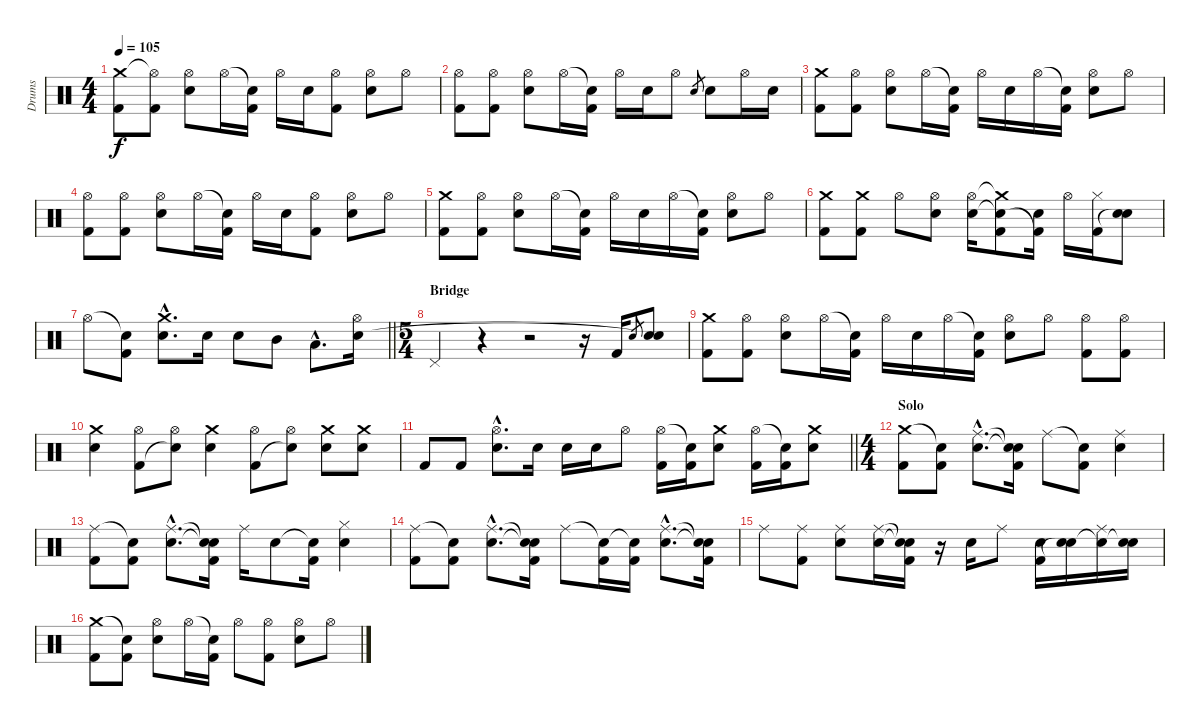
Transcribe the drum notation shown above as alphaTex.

\track ("Drums" "Drums") {instrument percussion}
\staff {score}
\articulation defaults
\ts (4 4)
\tempo 105
\clef neutral
\ks aminor
("Crash medium (hit)" "Kick (hit) 2").8{dy f} ("Hi-Hat (open)"{t} "Kick (hit) 2").8 ("Hi-Hat (open)" "Electric Snare (hit)").8 "Hi-Hat (open)".16 ("Snare (hit)"{t} "Kick (hit) 2").16 "Hi-Hat (open)".16 "Electric Snare (hit)".16 ("Hi-Hat (open)" "Kick (hit) 2").8 ("Hi-Hat (open)" "Electric Snare (hit)").8 "Hi-Hat (open)".8 |
("Hi-Hat (open)" "Kick (hit) 2").8 ("Hi-Hat (open)" "Kick (hit) 2").8 ("Hi-Hat (open)" "Electric Snare (hit)").8 "Hi-Hat (open)".16 ("Snare (hit)"{t} "Kick (hit) 2").16 "Hi-Hat (open)".16 "Electric Snare (hit)".16 "Hi-Hat (open)".8 "Electric Snare (hit)".8{gr} "Electric Snare (hit)".8 "Hi-Hat (open)".16 "Electric Snare (hit)".16 |
("Crash medium (hit)" "Kick (hit) 2").8 ("Hi-Hat (open)" "Kick (hit) 2").8 ("Hi-Hat (open)" "Electric Snare (hit)").8 "Hi-Hat (open)".16 ("Snare (hit)"{t} "Kick (hit) 2").16 "Hi-Hat (open)".16 "Electric Snare (hit)".16 "Hi-Hat (open)".16 ("Snare (hit)"{t} "Kick (hit) 2").16 ("Hi-Hat (open)" "Electric Snare (hit)").8 "Hi-Hat (open)".8 |
("Hi-Hat (open)" "Kick (hit) 2").8 ("Hi-Hat (open)" "Kick (hit) 2").8 ("Hi-Hat (open)" "Electric Snare (hit)").8 "Hi-Hat (open)".16 ("Snare (hit)"{t} "Kick (hit) 2").16 "Hi-Hat (open)".16 "Electric Snare (hit)".16 ("Hi-Hat (open)" "Kick (hit) 2").8 ("Hi-Hat (open)" "Electric Snare (hit)").8 "Hi-Hat (open)".8 |
("Crash medium (hit)" "Kick (hit) 2").8 ("Hi-Hat (open)" "Kick (hit) 2").8 ("Hi-Hat (open)" "Electric Snare (hit)").8 "Hi-Hat (open)".16 ("Snare (hit)"{t} "Kick (hit) 2").16 "Hi-Hat (open)".16 "Electric Snare (hit)".16 "Hi-Hat (open)".16 ("Snare (hit)"{t} "Kick (hit) 2").16 ("Hi-Hat (open)" "Electric Snare (hit)").8 "Hi-Hat (open)".8 |
("Crash medium (hit)" "Kick (hit) 2").8 ("Crash medium (hit)" "Kick (hit) 2").8 "Hi-Hat (open)".8 ("Hi-Hat (open)" "Electric Snare (hit)").8 ("Hi-Hat (open)" "Electric Snare (hit)").16 ("Crash medium (hit)"{t} "Electric Snare (hit)"{t} "Kick (hit) 2").8 ("Electric Snare (hit)" "Kick (hit) 2"{t}).16 "Hi-Hat (open)".16 ("Hi-Hat (closed)" "Kick (hit) 2").16 ("Electric Snare (hit)" "Snare (hit)"{t}).8 |
\barLineRight lightlight "Hi-Hat (open)".8
("Snare (hit)"{t} "Kick (hit) 2").8 ("Crash medium (hit)"{hac} "Electric Snare (hit)"{hac}).8{d} "Electric Snare (hit)".16 "Electric Snare (hit)".8 "Mid Tom (hit)".8 "Low Floor Tom (hit)"{hac}.8{d} ("Hi-Hat (open)" "Electric Snare (hit)").16 |
\ts (5 4)
\section ("" "Bridge")
"Pedal Hi-Hat (hit)".4 r.4 r.2 r.16 "Kick (hit) 2".16 "Electric Snare (hit)".8{gr} ("Electric Snare (hit)" "Snare (hit)"{t}).8 |
("Crash medium (hit)" "Kick (hit) 2").8 ("Hi-Hat (open)" "Kick (hit) 2").8 ("Hi-Hat (open)" "Electric Snare (hit)").8 "Hi-Hat (open)".16 ("Snare (hit)"{t} "Kick (hit) 2").16 "Hi-Hat (open)".16 "Electric Snare (hit)".16 "Hi-Hat (open)".16 ("Snare (hit)"{t} "Kick (hit) 2").16 ("Hi-Hat (open)" "Electric Snare (hit)").8 "Hi-Hat (open)".8 ("Hi-Hat (open)" "Kick (hit) 2").8 ("Hi-Hat (open)" "Kick (hit) 2").8 |
("Crash medium (hit)" "Electric Snare (hit)").4 ("Hi-Hat (open)" "Kick (hit) 2").8 ("Hi-Hat (open)" "Snare (hit)"{t}).8 ("Crash medium (hit)" "Electric Snare (hit)").4 ("Hi-Hat (open)" "Kick (hit) 2").8 ("Hi-Hat (open)" "Snare (hit)"{t}).8 ("Crash medium (hit)" "Electric Snare (hit)").8 ("Crash medium (hit)" "Electric Snare (hit)").8 |
\barLineRight lightlight "Kick (hit) 2".8 "Kick (hit) 2".8
("Hi-Hat (open)"{hac} "Electric Snare (hit)"{hac}).8{d} "Electric Snare (hit)".16 "Electric Snare (hit)".16 "Electric Snare (hit)".16 "Hi-Hat (open)".8 ("Hi-Hat (open)" "Kick (hit) 2").16 ("Snare (hit)"{t} "Kick (hit) 2").16 ("Crash medium (hit)" "Electric Snare (hit)").8 ("Hi-Hat (open)" "Kick (hit) 2").16 ("Snare (hit)"{t} "Kick (hit) 2").16 ("Crash medium (hit)" "Electric Snare (hit)").8 |
\ts (4 4)
\section ("" "Solo")
("Crash medium (hit)" "Kick (hit) 2").8 ("Snare (hit)"{t} "Kick (hit) 2").8 ("Ride (middle)"{hac} "Electric Snare (hit)"{hac}).8{d} ("Snare (hit)"{t} "Snare (hit)"{t} "Kick (hit) 2").16 "Ride (middle)".8 ("Snare (hit)"{t} "Kick (hit) 2").8 ("Ride (middle)" "Electric Snare (hit)").4 |
("Ride (middle)" "Kick (hit) 2").8 ("Snare (hit)"{t} "Kick (hit) 2").8 ("Ride (middle)"{hac} "Electric Snare (hit)"{hac}).8{d} ("Snare (hit)"{t} "Snare (hit)"{t} "Kick (hit) 2").16 "Ride (middle)".16 "Electric Snare (hit)".8 ("Snare (hit)"{t} "Kick (hit) 2").16 ("Hi-Hat (closed)" "Electric Snare (hit)").4 |
("Ride (middle)" "Kick (hit) 2").8 ("Snare (hit)"{t} "Kick (hit) 2").8 ("Ride (middle)"{hac} "Electric Snare (hit)"{hac}).8{d} ("Snare (hit)"{t} "Snare (hit)"{t} "Kick (hit) 2").16 "Ride (middle)".8 ("Snare (hit)"{t} "Kick (hit) 2").16 ("Snare (hit)"{t} "Kick (hit) 2").16 ("Ride (middle)"{hac} "Electric Snare (hit)"{hac}).8{d} ("Snare (hit)"{t} "Snare (hit)"{t} "Kick (hit) 2").16 |
"Ride (middle)".8 ("Ride (middle)" "Kick (hit) 2").8 ("Ride (middle)" "Electric Snare (hit)").8 ("Ride (middle)" "Electric Snare (hit)").16 ("Snare (hit)"{t} "Snare (hit)"{t} "Kick (hit) 2").16 r.16 "Electric Snare (hit)".16 "Ride (middle)".8 ("Electric Snare (hit)" "Kick (hit) 2").16 ("Electric Snare (hit)" "Snare (hit)"{t}).16 ("Ride (middle)" "Snare (hit)"{t}).16 ("Electric Snare (hit)" "Snare (hit)"{t}).16 |
("Crash medium (hit)" "Kick (hit) 2").8 ("Snare (hit)"{t} "Kick (hit) 2").8 ("Hi-Hat (open)" "Electric Snare (hit)").8 "Hi-Hat (open)".16 ("Snare (hit)"{t} "Kick (hit) 2").16 "Hi-Hat (open)".8 ("Hi-Hat (open)" "Kick (hit) 2").8 ("Hi-Hat (open)" "Electric Snare (hit)").8 "Hi-Hat (open)".8
